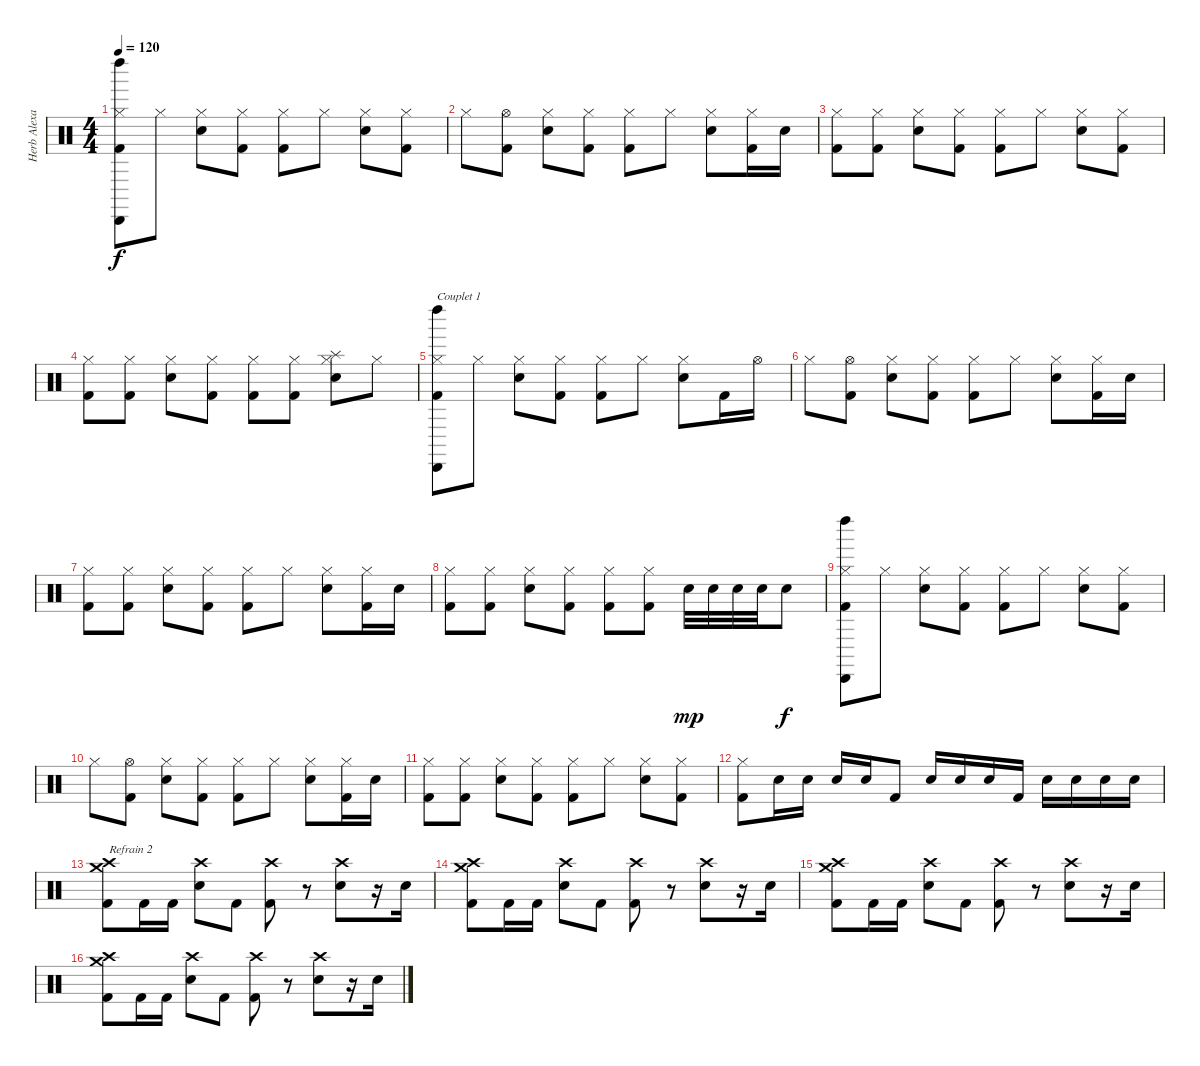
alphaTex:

\track ("Herb Alexander" "Herb Alexa") {instrument percussion}
\staff {score}
\articulation defaults
\ts (4 4)
\tempo 120
\clef neutral
\ks c
("Left Maraca (hit)" "Cabasa (hit)" "Hi-Hat (closed)" "Kick (hit) 2").8{dy f} "Hi-Hat (closed)".8 ("Electric Snare (hit)" "Hi-Hat (closed)").8 ("Hi-Hat (closed)" "Kick (hit) 2").8 ("Hi-Hat (closed)" "Kick (hit) 2").8 "Hi-Hat (closed)".8 ("Electric Snare (hit)" "Hi-Hat (closed)").8 ("Hi-Hat (closed)" "Kick (hit) 2").8 |
"Hi-Hat (closed)".8 ("Hi-Hat (open)" "Kick (hit) 2").8 ("Electric Snare (hit)" "Hi-Hat (closed)").8 ("Hi-Hat (closed)" "Kick (hit) 2").8 ("Hi-Hat (closed)" "Kick (hit) 2").8 "Hi-Hat (closed)".8 ("Electric Snare (hit)" "Hi-Hat (closed)").8 ("Hi-Hat (closed)" "Kick (hit) 2").16 "Electric Snare (hit)".16 |
("Hi-Hat (closed)" "Kick (hit) 2").8 ("Hi-Hat (closed)" "Kick (hit) 2").8 ("Electric Snare (hit)" "Hi-Hat (closed)").8 ("Hi-Hat (closed)" "Kick (hit) 2").8 ("Hi-Hat (closed)" "Kick (hit) 2").8 "Hi-Hat (closed)".8 ("Electric Snare (hit)" "Hi-Hat (closed)").8 ("Hi-Hat (closed)" "Kick (hit) 2").8 |
("Hi-Hat (closed)" "Kick (hit) 2").8 ("Hi-Hat (closed)" "Kick (hit) 2").8 ("Electric Snare (hit)" "Hi-Hat (closed)").8 ("Hi-Hat (closed)" "Kick (hit) 2").8 ("Hi-Hat (closed)" "Kick (hit) 2").8 ("Hi-Hat (closed)" "Kick (hit) 2").8 ("Splash (hit)" "Electric Snare (hit)" "Hi-Hat (closed)").8 "Hi-Hat (closed)".8 |
("Left Maraca (hit)" "Cabasa (hit)" "Hi-Hat (closed)" "Kick (hit) 2").8{txt "Couplet 1"} "Hi-Hat (closed)".8 ("Electric Snare (hit)" "Hi-Hat (closed)").8 ("Hi-Hat (closed)" "Kick (hit) 2").8 ("Hi-Hat (closed)" "Kick (hit) 2").8 "Hi-Hat (closed)".8 ("Electric Snare (hit)" "Hi-Hat (closed)").8 "Kick (hit) 2".16 "Hi-Hat (open)".16 |
"Hi-Hat (closed)".8 ("Hi-Hat (open)" "Kick (hit) 2").8 ("Electric Snare (hit)" "Hi-Hat (closed)").8 ("Hi-Hat (closed)" "Kick (hit) 2").8 ("Hi-Hat (closed)" "Kick (hit) 2").8 "Hi-Hat (closed)".8 ("Electric Snare (hit)" "Hi-Hat (closed)").8 ("Hi-Hat (closed)" "Kick (hit) 2").16 "Electric Snare (hit)".16 |
("Hi-Hat (closed)" "Kick (hit) 2").8 ("Hi-Hat (closed)" "Kick (hit) 2").8 ("Electric Snare (hit)" "Hi-Hat (closed)").8 ("Hi-Hat (closed)" "Kick (hit) 2").8 ("Hi-Hat (closed)" "Kick (hit) 2").8 "Hi-Hat (closed)".8 ("Electric Snare (hit)" "Hi-Hat (closed)").8 ("Hi-Hat (closed)" "Kick (hit) 2").16 "Electric Snare (hit)".16 |
("Hi-Hat (closed)" "Kick (hit) 2").8 ("Hi-Hat (closed)" "Kick (hit) 2").8 ("Electric Snare (hit)" "Hi-Hat (closed)").8 ("Hi-Hat (closed)" "Kick (hit) 2").8 ("Hi-Hat (closed)" "Kick (hit) 2").8 ("Hi-Hat (closed)" "Kick (hit) 2").8 "Electric Snare (hit)".32{dy mp} "Electric Snare (hit)".32 "Electric Snare (hit)".32 "Electric Snare (hit)".32 "Electric Snare (hit)".8{dy f} |
("Left Maraca (hit)" "Cabasa (hit)" "Hi-Hat (closed)" "Kick (hit) 2").8 "Hi-Hat (closed)".8 ("Electric Snare (hit)" "Hi-Hat (closed)").8 ("Hi-Hat (closed)" "Kick (hit) 2").8 ("Hi-Hat (closed)" "Kick (hit) 2").8 "Hi-Hat (closed)".8 ("Electric Snare (hit)" "Hi-Hat (closed)").8 ("Hi-Hat (closed)" "Kick (hit) 2").8 |
"Hi-Hat (closed)".8 ("Hi-Hat (open)" "Kick (hit) 2").8 ("Electric Snare (hit)" "Hi-Hat (closed)").8 ("Hi-Hat (closed)" "Kick (hit) 2").8 ("Hi-Hat (closed)" "Kick (hit) 2").8 "Hi-Hat (closed)".8 ("Electric Snare (hit)" "Hi-Hat (closed)").8 ("Hi-Hat (closed)" "Kick (hit) 2").16 "Electric Snare (hit)".16 |
("Hi-Hat (closed)" "Kick (hit) 2").8 ("Hi-Hat (closed)" "Kick (hit) 2").8 ("Electric Snare (hit)" "Hi-Hat (closed)").8 ("Hi-Hat (closed)" "Kick (hit) 2").8 ("Hi-Hat (closed)" "Kick (hit) 2").8 "Hi-Hat (closed)".8 ("Electric Snare (hit)" "Hi-Hat (closed)").8 ("Hi-Hat (closed)" "Kick (hit) 2").8 |
("Hi-Hat (closed)" "Kick (hit) 2").8 "Electric Snare (hit)".16 "Electric Snare (hit)".16 "Electric Snare (hit)".16 "Electric Snare (hit)".16 "Kick (hit) 2".8 "Electric Snare (hit)".16 "Electric Snare (hit)".16 "Electric Snare (hit)".16 "Kick (hit) 2".16 "Electric Snare (hit)".16 "Electric Snare (hit)".16 "Electric Snare (hit)".16 "Electric Snare (hit)".16 |
("Crash medium (hit)" "Crash high (hit)" "Kick (hit) 2").8{txt "Refrain 2"} "Kick (hit) 2".16 "Kick (hit) 2".16 ("Crash high (hit)" "Electric Snare (hit)").8 "Kick (hit) 2".8 ("Crash high (hit)" "Kick (hit) 2").8 r.8 ("Crash high (hit)" "Electric Snare (hit)").8 r.16 "Electric Snare (hit)".16 |
("Crash medium (hit)" "Crash high (hit)" "Kick (hit) 2").8 "Kick (hit) 2".16 "Kick (hit) 2".16 ("Crash high (hit)" "Electric Snare (hit)").8 "Kick (hit) 2".8 ("Crash high (hit)" "Kick (hit) 2").8 r.8 ("Crash high (hit)" "Electric Snare (hit)").8 r.16 "Electric Snare (hit)".16 |
("Crash medium (hit)" "Crash high (hit)" "Kick (hit) 2").8 "Kick (hit) 2".16 "Kick (hit) 2".16 ("Crash high (hit)" "Electric Snare (hit)").8 "Kick (hit) 2".8 ("Crash high (hit)" "Kick (hit) 2").8 r.8 ("Crash high (hit)" "Electric Snare (hit)").8 r.16 "Electric Snare (hit)".16 |
("Crash medium (hit)" "Crash high (hit)" "Kick (hit) 2").8 "Kick (hit) 2".16 "Kick (hit) 2".16 ("Crash high (hit)" "Electric Snare (hit)").8 "Kick (hit) 2".8 ("Crash high (hit)" "Kick (hit) 2").8 r.8 ("Crash high (hit)" "Electric Snare (hit)").8 r.16 "Electric Snare (hit)".16
